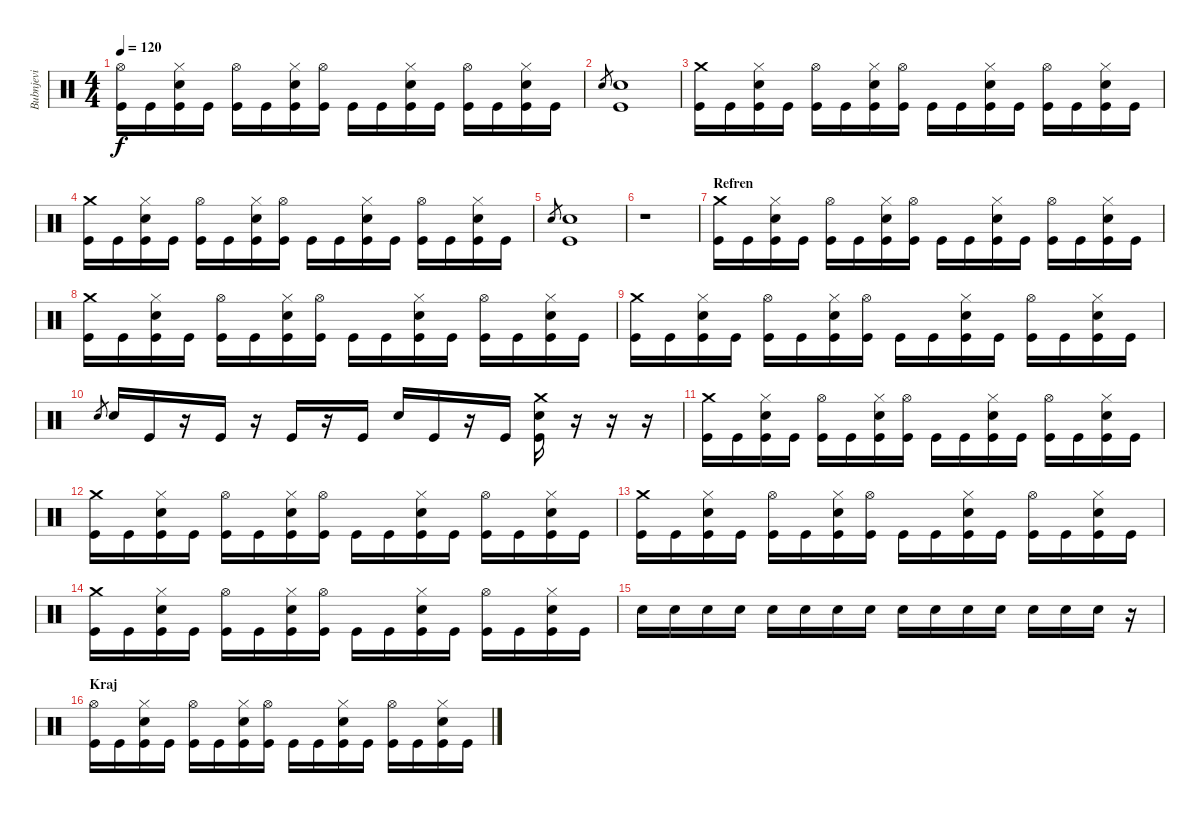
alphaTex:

\track ("Bubnjevi" "Bubnjevi") {instrument percussion}
\staff {score}
\articulation defaults
\ts (4 4)
\tempo 120
\clef neutral
\ks c
("Hi-Hat (open)" "Kick (hit)").16{dy f} "Kick (hit)".16 ("Electric Snare (hit)" "Hi-Hat (closed)" "Kick (hit)").16 "Kick (hit)".16 ("Hi-Hat (open)" "Kick (hit)").16 "Kick (hit)".16 ("Electric Snare (hit)" "Hi-Hat (closed)" "Kick (hit)").16 ("Hi-Hat (open)" "Kick (hit)").16 "Kick (hit)".16 "Kick (hit)".16 ("Electric Snare (hit)" "Hi-Hat (closed)" "Kick (hit)").16 "Kick (hit)".16 ("Hi-Hat (open)" "Kick (hit)").16 "Kick (hit)".16 ("Electric Snare (hit)" "Hi-Hat (closed)" "Kick (hit)").16 "Kick (hit)".16 |
"Electric Snare (hit)".8{gr} ("Electric Snare (hit)" "Kick (hit)").1 |
("Crash medium (hit)" "Kick (hit)").16 "Kick (hit)".16 ("Electric Snare (hit)" "Hi-Hat (closed)" "Kick (hit)").16 "Kick (hit)".16 ("Hi-Hat (open)" "Kick (hit)").16 "Kick (hit)".16 ("Electric Snare (hit)" "Hi-Hat (closed)" "Kick (hit)").16 ("Hi-Hat (open)" "Kick (hit)").16 "Kick (hit)".16 "Kick (hit)".16 ("Electric Snare (hit)" "Hi-Hat (closed)" "Kick (hit)").16 "Kick (hit)".16 ("Hi-Hat (open)" "Kick (hit)").16 "Kick (hit)".16 ("Electric Snare (hit)" "Hi-Hat (closed)" "Kick (hit)").16 "Kick (hit)".16 |
("Crash medium (hit)" "Kick (hit)").16 "Kick (hit)".16 ("Electric Snare (hit)" "Hi-Hat (closed)" "Kick (hit)").16 "Kick (hit)".16 ("Hi-Hat (open)" "Kick (hit)").16 "Kick (hit)".16 ("Electric Snare (hit)" "Hi-Hat (closed)" "Kick (hit)").16 ("Hi-Hat (open)" "Kick (hit)").16 "Kick (hit)".16 "Kick (hit)".16 ("Electric Snare (hit)" "Hi-Hat (closed)" "Kick (hit)").16 "Kick (hit)".16 ("Hi-Hat (open)" "Kick (hit)").16 "Kick (hit)".16 ("Electric Snare (hit)" "Hi-Hat (closed)" "Kick (hit)").16 "Kick (hit)".16 |
"Electric Snare (hit)".8{gr} ("Electric Snare (hit)" "Kick (hit)").1 |
r.1 |
\section ("" "Refren")
("Crash medium (hit)" "Kick (hit)").16 "Kick (hit)".16 ("Electric Snare (hit)" "Hi-Hat (closed)" "Kick (hit)").16 "Kick (hit)".16 ("Hi-Hat (open)" "Kick (hit)").16 "Kick (hit)".16 ("Electric Snare (hit)" "Hi-Hat (closed)" "Kick (hit)").16 ("Hi-Hat (open)" "Kick (hit)").16 "Kick (hit)".16 "Kick (hit)".16 ("Electric Snare (hit)" "Hi-Hat (closed)" "Kick (hit)").16 "Kick (hit)".16 ("Hi-Hat (open)" "Kick (hit)").16 "Kick (hit)".16 ("Electric Snare (hit)" "Hi-Hat (closed)" "Kick (hit)").16 "Kick (hit)".16 |
("Crash medium (hit)" "Kick (hit)").16 "Kick (hit)".16 ("Electric Snare (hit)" "Hi-Hat (closed)" "Kick (hit)").16 "Kick (hit)".16 ("Hi-Hat (open)" "Kick (hit)").16 "Kick (hit)".16 ("Electric Snare (hit)" "Hi-Hat (closed)" "Kick (hit)").16 ("Hi-Hat (open)" "Kick (hit)").16 "Kick (hit)".16 "Kick (hit)".16 ("Electric Snare (hit)" "Hi-Hat (closed)" "Kick (hit)").16 "Kick (hit)".16 ("Hi-Hat (open)" "Kick (hit)").16 "Kick (hit)".16 ("Electric Snare (hit)" "Hi-Hat (closed)" "Kick (hit)").16 "Kick (hit)".16 |
("Crash medium (hit)" "Kick (hit)").16 "Kick (hit)".16 ("Electric Snare (hit)" "Hi-Hat (closed)" "Kick (hit)").16 "Kick (hit)".16 ("Hi-Hat (open)" "Kick (hit)").16 "Kick (hit)".16 ("Electric Snare (hit)" "Hi-Hat (closed)" "Kick (hit)").16 ("Hi-Hat (open)" "Kick (hit)").16 "Kick (hit)".16 "Kick (hit)".16 ("Electric Snare (hit)" "Hi-Hat (closed)" "Kick (hit)").16 "Kick (hit)".16 ("Hi-Hat (open)" "Kick (hit)").16 "Kick (hit)".16 ("Electric Snare (hit)" "Hi-Hat (closed)" "Kick (hit)").16 "Kick (hit)".16 |
"Electric Snare (hit)".8{gr} "Electric Snare (hit)".16 "Kick (hit)".16 r.16 "Kick (hit)".16 r.16 "Kick (hit)".16 r.16 "Kick (hit)".16 "Electric Snare (hit)".16 "Kick (hit)".16 r.16 "Kick (hit)".16 ("Crash medium (hit)" "Electric Snare (hit)" "Kick (hit)").16 r.16 r.16 r.16 |
("Crash medium (hit)" "Kick (hit)").16 "Kick (hit)".16 ("Electric Snare (hit)" "Hi-Hat (closed)" "Kick (hit)").16 "Kick (hit)".16 ("Hi-Hat (open)" "Kick (hit)").16 "Kick (hit)".16 ("Electric Snare (hit)" "Hi-Hat (closed)" "Kick (hit)").16 ("Hi-Hat (open)" "Kick (hit)").16 "Kick (hit)".16 "Kick (hit)".16 ("Electric Snare (hit)" "Hi-Hat (closed)" "Kick (hit)").16 "Kick (hit)".16 ("Hi-Hat (open)" "Kick (hit)").16 "Kick (hit)".16 ("Electric Snare (hit)" "Hi-Hat (closed)" "Kick (hit)").16 "Kick (hit)".16 |
("Crash medium (hit)" "Kick (hit)").16 "Kick (hit)".16 ("Electric Snare (hit)" "Hi-Hat (closed)" "Kick (hit)").16 "Kick (hit)".16 ("Hi-Hat (open)" "Kick (hit)").16 "Kick (hit)".16 ("Electric Snare (hit)" "Hi-Hat (closed)" "Kick (hit)").16 ("Hi-Hat (open)" "Kick (hit)").16 "Kick (hit)".16 "Kick (hit)".16 ("Electric Snare (hit)" "Hi-Hat (closed)" "Kick (hit)").16 "Kick (hit)".16 ("Hi-Hat (open)" "Kick (hit)").16 "Kick (hit)".16 ("Electric Snare (hit)" "Hi-Hat (closed)" "Kick (hit)").16 "Kick (hit)".16 |
("Crash medium (hit)" "Kick (hit)").16 "Kick (hit)".16 ("Electric Snare (hit)" "Hi-Hat (closed)" "Kick (hit)").16 "Kick (hit)".16 ("Hi-Hat (open)" "Kick (hit)").16 "Kick (hit)".16 ("Electric Snare (hit)" "Hi-Hat (closed)" "Kick (hit)").16 ("Hi-Hat (open)" "Kick (hit)").16 "Kick (hit)".16 "Kick (hit)".16 ("Electric Snare (hit)" "Hi-Hat (closed)" "Kick (hit)").16 "Kick (hit)".16 ("Hi-Hat (open)" "Kick (hit)").16 "Kick (hit)".16 ("Electric Snare (hit)" "Hi-Hat (closed)" "Kick (hit)").16 "Kick (hit)".16 |
("Crash medium (hit)" "Kick (hit)").16 "Kick (hit)".16 ("Electric Snare (hit)" "Hi-Hat (closed)" "Kick (hit)").16 "Kick (hit)".16 ("Hi-Hat (open)" "Kick (hit)").16 "Kick (hit)".16 ("Electric Snare (hit)" "Hi-Hat (closed)" "Kick (hit)").16 ("Hi-Hat (open)" "Kick (hit)").16 "Kick (hit)".16 "Kick (hit)".16 ("Electric Snare (hit)" "Hi-Hat (closed)" "Kick (hit)").16 "Kick (hit)".16 ("Hi-Hat (open)" "Kick (hit)").16 "Kick (hit)".16 ("Electric Snare (hit)" "Hi-Hat (closed)" "Kick (hit)").16 "Kick (hit)".16 |
"Electric Snare (hit)".16 "Electric Snare (hit)".16 "Electric Snare (hit)".16 "Electric Snare (hit)".16 "Electric Snare (hit)".16 "Electric Snare (hit)".16 "Electric Snare (hit)".16 "Electric Snare (hit)".16 "Electric Snare (hit)".16 "Electric Snare (hit)".16 "Electric Snare (hit)".16 "Electric Snare (hit)".16 "Electric Snare (hit)".16 "Electric Snare (hit)".16 "Electric Snare (hit)".16 r.16 |
\section ("" "Kraj")
("Hi-Hat (open)" "Kick (hit)").16 "Kick (hit)".16 ("Electric Snare (hit)" "Hi-Hat (closed)" "Kick (hit)").16 "Kick (hit)".16 ("Hi-Hat (open)" "Kick (hit)").16 "Kick (hit)".16 ("Electric Snare (hit)" "Hi-Hat (closed)" "Kick (hit)").16 ("Hi-Hat (open)" "Kick (hit)").16 "Kick (hit)".16 "Kick (hit)".16 ("Electric Snare (hit)" "Hi-Hat (closed)" "Kick (hit)").16 "Kick (hit)".16 ("Hi-Hat (open)" "Kick (hit)").16 "Kick (hit)".16 ("Electric Snare (hit)" "Hi-Hat (closed)" "Kick (hit)").16 "Kick (hit)".16
